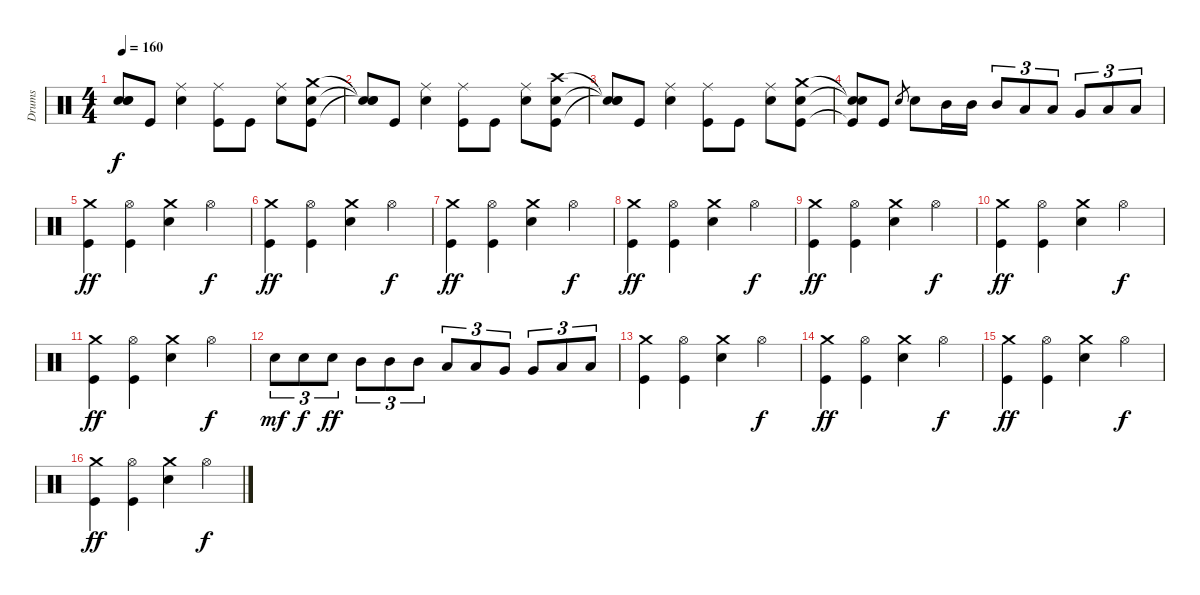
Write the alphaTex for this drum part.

\track ("Drums" "Drums") {instrument percussion}
\staff {score}
\articulation defaults
\ts (4 4)
\tempo 160
\clef neutral
\ks c
("Snare (hit)"{t} "Snare (hit)"{t} "Snare (hit)"{t}).8{dy f} "Kick (hit)".8 ("Ride (middle)" "Electric Snare (hit)").4 ("Ride (middle)" "Kick (hit)").8 "Kick (hit)".8 ("Ride (middle)" "Electric Snare (hit)").8 ("Crash medium (hit)" "Electric Snare (hit)" "Kick (hit)").8 |
("Snare (hit)"{t} "Snare (hit)"{t} "Snare (hit)"{t}).8 "Kick (hit)".8 ("Ride (middle)" "Electric Snare (hit)").4 ("Ride (middle)" "Kick (hit)").8 "Kick (hit)".8 ("Ride (middle)" "Electric Snare (hit)").8 ("Crash high (hit)" "Electric Snare (hit)" "Kick (hit)").8 |
("Snare (hit)"{t} "Snare (hit)"{t} "Snare (hit)"{t}).8 "Kick (hit)".8 ("Ride (middle)" "Electric Snare (hit)").4 ("Ride (middle)" "Kick (hit)").8 "Kick (hit)".8 ("Ride (middle)" "Electric Snare (hit)").8 ("Crash medium (hit)" "Electric Snare (hit)" "Kick (hit)").8 |
("Snare (hit)"{t} "Snare (hit)"{t} "Kick (hit)"{t}).8 "Kick (hit)".8 "Electric Snare (hit)".8{gr} "Electric Snare (hit)".8 "Mid Tom (hit)".16 "Mid Tom (hit)".16 "Mid Tom (hit)".8{tu (3 2)} "Low Tom (hit)".8{tu (3 2)} "Low Tom (hit)".8{tu (3 2)} "Very Low Tom (hit)".8{tu (3 2)} "Low Floor Tom (hit)".8{tu (3 2)} "Low Floor Tom (hit)".8{tu (3 2)} |
("Crash medium (hit)" "Kick (hit)").4{dy ff} ("Hi-Hat (open)" "Kick (hit)").4 ("Crash medium (hit)" "Electric Snare (hit)").4 "Hi-Hat (open)".4{dy f} |
("Crash medium (hit)" "Kick (hit)").4{dy ff} ("Hi-Hat (open)" "Kick (hit)").4 ("Crash medium (hit)" "Electric Snare (hit)").4 "Hi-Hat (open)".4{dy f} |
("Crash medium (hit)" "Kick (hit)").4{dy ff} ("Hi-Hat (open)" "Kick (hit)").4 ("Crash medium (hit)" "Electric Snare (hit)").4 "Hi-Hat (open)".4{dy f} |
("Crash medium (hit)" "Kick (hit)").4{dy ff} ("Hi-Hat (open)" "Kick (hit)").4 ("Crash medium (hit)" "Electric Snare (hit)").4 "Hi-Hat (open)".4{dy f} |
("Crash medium (hit)" "Kick (hit)").4{dy ff} ("Hi-Hat (open)" "Kick (hit)").4 ("Crash medium (hit)" "Electric Snare (hit)").4 "Hi-Hat (open)".4{dy f} |
("Crash medium (hit)" "Kick (hit)").4{dy ff} ("Hi-Hat (open)" "Kick (hit)").4 ("Crash medium (hit)" "Electric Snare (hit)").4 "Hi-Hat (open)".4{dy f} |
("Crash medium (hit)" "Kick (hit)").4{dy ff} ("Hi-Hat (open)" "Kick (hit)").4 ("Crash medium (hit)" "Electric Snare (hit)").4 "Hi-Hat (open)".4{dy f} |
"Electric Snare (hit)".8{tu (3 2) dy mf} "Electric Snare (hit)".8{tu (3 2) dy f} "Electric Snare (hit)".8{tu (3 2) dy ff} "Mid Tom (hit)".8{tu (3 2)} "Mid Tom (hit)".8{tu (3 2)} "Mid Tom (hit)".8{tu (3 2)} "Low Tom (hit)".8{tu (3 2)} "Low Tom (hit)".8{tu (3 2)} "Very Low Tom (hit)".8{tu (3 2)} "Very Low Tom (hit)".8{tu (3 2)} "Low Floor Tom (hit)".8{tu (3 2)} "Low Floor Tom (hit)".8{tu (3 2)} |
("Crash medium (hit)" "Kick (hit)").4 ("Hi-Hat (open)" "Kick (hit)").4 ("Crash medium (hit)" "Electric Snare (hit)").4 "Hi-Hat (open)".4{dy f} |
("Crash medium (hit)" "Kick (hit)").4{dy ff} ("Hi-Hat (open)" "Kick (hit)").4 ("Crash medium (hit)" "Electric Snare (hit)").4 "Hi-Hat (open)".4{dy f} |
("Crash medium (hit)" "Kick (hit)").4{dy ff} ("Hi-Hat (open)" "Kick (hit)").4 ("Crash medium (hit)" "Electric Snare (hit)").4 "Hi-Hat (open)".4{dy f} |
("Crash medium (hit)" "Kick (hit)").4{dy ff} ("Hi-Hat (open)" "Kick (hit)").4 ("Crash medium (hit)" "Electric Snare (hit)").4 "Hi-Hat (open)".4{dy f}
